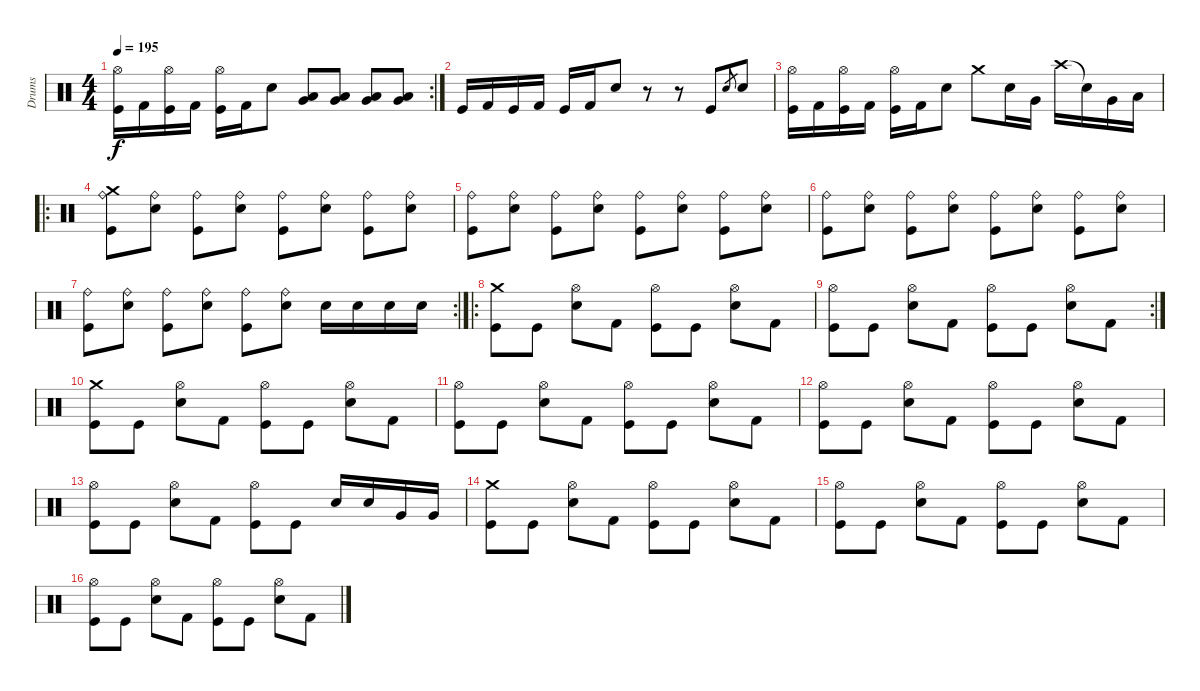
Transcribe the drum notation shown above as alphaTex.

\track ("Drums" "Drums") {instrument percussion}
\staff {score}
\articulation defaults
\rc 2
\ts (4 4)
\tempo 195
\clef neutral
\ks c
("Hi-Hat (open)" "Kick (hit)").16{dy f} "Kick (hit) 2".16 ("Hi-Hat (open)" "Kick (hit)").16 "Kick (hit) 2".16 ("Hi-Hat (open)" "Kick (hit)").16 "Kick (hit) 2".16 "Electric Snare (hit)".8 ("Very Low Tom (hit)" "Low Floor Tom (hit)").8 ("Very Low Tom (hit)" "Low Floor Tom (hit)").8 ("Very Low Tom (hit)" "Low Floor Tom (hit)").8 ("Very Low Tom (hit)" "Low Floor Tom (hit)").8 |
"Kick (hit)".16 "Kick (hit) 2".16 "Kick (hit)".16 "Kick (hit) 2".16 "Kick (hit)".16 "Kick (hit) 2".16 "Electric Snare (hit)".8 r.8 r.8 "Kick (hit)".8 "Electric Snare (hit)".8{gr} "Electric Snare (hit)".8 |
("Hi-Hat (open)" "Kick (hit)").16 "Kick (hit) 2".16 ("Hi-Hat (open)" "Kick (hit)").16 "Kick (hit) 2".16 ("Hi-Hat (open)" "Kick (hit)").16 "Kick (hit) 2".16 "Electric Snare (hit)".8 "Crash medium (hit)".8 "Electric Snare (hit)".16 "Very Low Tom (hit)".16 "Crash high (hit)".16 "Snare (hit)"{t}.16 "Very Low Tom (hit)".16 "Low Floor Tom (hit)".16 |
\ro
("Ride (bell)" "Crash medium (hit)" "Kick (hit)").8 ("Ride (bell)" "Electric Snare (hit)").8 ("Ride (bell)" "Kick (hit)").8 ("Ride (bell)" "Electric Snare (hit)").8 ("Ride (bell)" "Kick (hit)").8 ("Ride (bell)" "Electric Snare (hit)").8 ("Ride (bell)" "Kick (hit)").8 ("Ride (bell)" "Electric Snare (hit)").8 |
("Ride (bell)" "Kick (hit)").8 ("Ride (bell)" "Electric Snare (hit)").8 ("Ride (bell)" "Kick (hit)").8 ("Ride (bell)" "Electric Snare (hit)").8 ("Ride (bell)" "Kick (hit)").8 ("Ride (bell)" "Electric Snare (hit)").8 ("Ride (bell)" "Kick (hit)").8 ("Ride (bell)" "Electric Snare (hit)").8 |
("Ride (bell)" "Kick (hit)").8 ("Ride (bell)" "Electric Snare (hit)").8 ("Ride (bell)" "Kick (hit)").8 ("Ride (bell)" "Electric Snare (hit)").8 ("Ride (bell)" "Kick (hit)").8 ("Ride (bell)" "Electric Snare (hit)").8 ("Ride (bell)" "Kick (hit)").8 ("Ride (bell)" "Electric Snare (hit)").8 |
\rc 2
("Ride (bell)" "Kick (hit)").8 ("Ride (bell)" "Electric Snare (hit)").8 ("Ride (bell)" "Kick (hit)").8 ("Ride (bell)" "Electric Snare (hit)").8 ("Ride (bell)" "Kick (hit)").8 ("Ride (bell)" "Electric Snare (hit)").8 "Electric Snare (hit)".16 "Electric Snare (hit)".16 "Electric Snare (hit)".16 "Electric Snare (hit)".16 |
\ro
("Crash medium (hit)" "Kick (hit)").8 "Kick (hit)".8 ("Hi-Hat (open)" "Electric Snare (hit)").8 "Kick (hit) 2".8 ("Hi-Hat (open)" "Kick (hit)").8 "Kick (hit)".8 ("Hi-Hat (open)" "Electric Snare (hit)").8 "Kick (hit) 2".8 |
\rc 2
("Hi-Hat (open)" "Kick (hit)").8 "Kick (hit)".8 ("Hi-Hat (open)" "Electric Snare (hit)").8 "Kick (hit) 2".8 ("Hi-Hat (open)" "Kick (hit)").8 "Kick (hit)".8 ("Hi-Hat (open)" "Electric Snare (hit)").8 "Kick (hit) 2".8 |
("Crash medium (hit)" "Kick (hit)").8 "Kick (hit)".8 ("Hi-Hat (open)" "Electric Snare (hit)").8 "Kick (hit) 2".8 ("Hi-Hat (open)" "Kick (hit)").8 "Kick (hit)".8 ("Hi-Hat (open)" "Electric Snare (hit)").8 "Kick (hit) 2".8 |
("Hi-Hat (open)" "Kick (hit)").8 "Kick (hit)".8 ("Hi-Hat (open)" "Electric Snare (hit)").8 "Kick (hit) 2".8 ("Hi-Hat (open)" "Kick (hit)").8 "Kick (hit)".8 ("Hi-Hat (open)" "Electric Snare (hit)").8 "Kick (hit) 2".8 |
("Hi-Hat (open)" "Kick (hit)").8 "Kick (hit)".8 ("Hi-Hat (open)" "Electric Snare (hit)").8 "Kick (hit) 2".8 ("Hi-Hat (open)" "Kick (hit)").8 "Kick (hit)".8 ("Hi-Hat (open)" "Electric Snare (hit)").8 "Kick (hit) 2".8 |
("Hi-Hat (open)" "Kick (hit)").8 "Kick (hit)".8 ("Hi-Hat (open)" "Electric Snare (hit)").8 "Kick (hit) 2".8 ("Hi-Hat (open)" "Kick (hit)").8 "Kick (hit)".8 "Electric Snare (hit)".16 "Electric Snare (hit)".16 "Very Low Tom (hit)".16 "Very Low Tom (hit)".16 |
("Crash medium (hit)" "Kick (hit)").8 "Kick (hit)".8 ("Hi-Hat (open)" "Electric Snare (hit)").8 "Kick (hit) 2".8 ("Hi-Hat (open)" "Kick (hit)").8 "Kick (hit)".8 ("Hi-Hat (open)" "Electric Snare (hit)").8 "Kick (hit) 2".8 |
("Hi-Hat (open)" "Kick (hit)").8 "Kick (hit)".8 ("Hi-Hat (open)" "Electric Snare (hit)").8 "Kick (hit) 2".8 ("Hi-Hat (open)" "Kick (hit)").8 "Kick (hit)".8 ("Hi-Hat (open)" "Electric Snare (hit)").8 "Kick (hit) 2".8 |
("Hi-Hat (open)" "Kick (hit)").8 "Kick (hit)".8 ("Hi-Hat (open)" "Electric Snare (hit)").8 "Kick (hit) 2".8 ("Hi-Hat (open)" "Kick (hit)").8 "Kick (hit)".8 ("Hi-Hat (open)" "Electric Snare (hit)").8 "Kick (hit) 2".8
